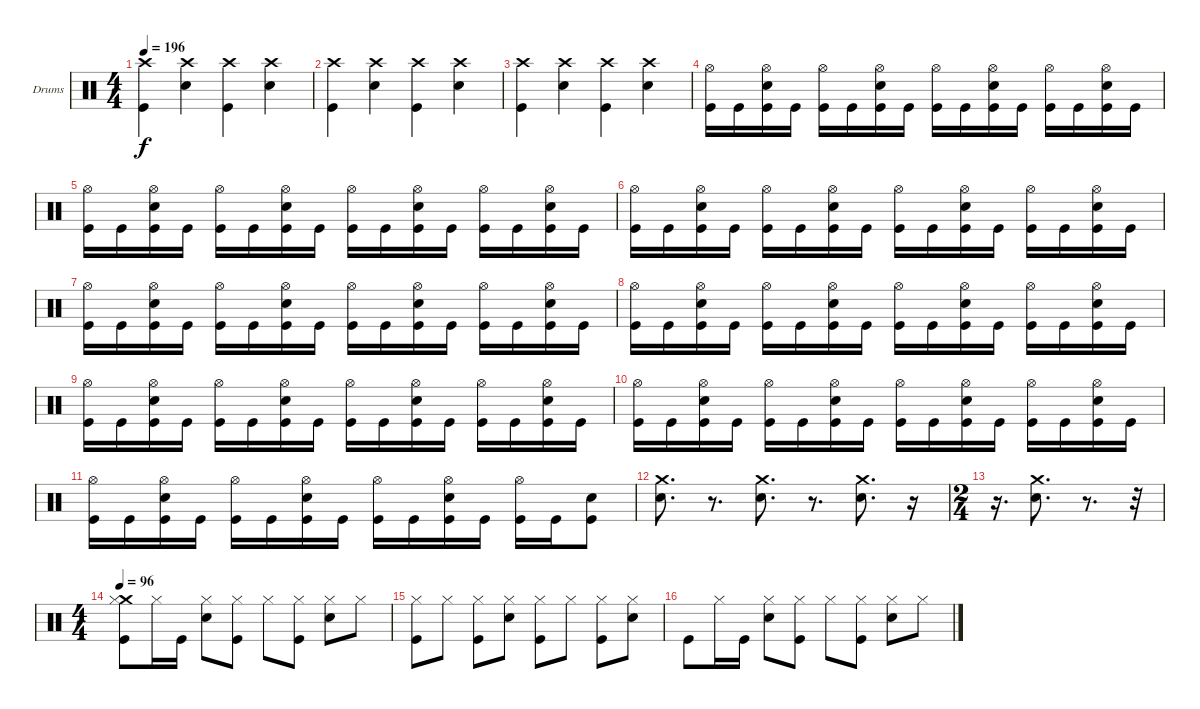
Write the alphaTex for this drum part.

\defaultSystemsLayout 4
\bracketExtendMode groupsimilarinstruments
\firstSystemTrackNameOrientation horizontal
\otherSystemsTrackNameOrientation horizontal
\track ("Lars Ulrich (Drum)" "Drums") {instrument percussion}
\staff {score}
\articulation defaults
\ts (4 4)
\tempo 196
\clef neutral
\scale
0.333333
\ks c
("Crash high (hit)" "Kick (hit)").4{dy f} ("Crash high (hit)" "Snare (hit) 2").4 ("Crash high (hit)" "Kick (hit)").4 ("Crash high (hit)" "Snare (hit) 2").4 |
\scale
0.333333 ("Crash high (hit)" "Kick (hit)").4 ("Crash high (hit)" "Snare (hit) 2").4 ("Crash high (hit)" "Kick (hit)").4 ("Crash high (hit)" "Snare (hit) 2").4 |
\scale
0.333333 ("Crash high (hit)" "Kick (hit)").4 ("Crash high (hit)" "Snare (hit) 2").4 ("Crash high (hit)" "Kick (hit)").4 ("Crash high (hit)" "Snare (hit) 2").4 |
\scale
0.333333 ("Hi-Hat (open)" "Kick (hit)").16 "Kick (hit)".16 ("Hi-Hat (open)" "Snare (hit) 2" "Kick (hit)").16 "Kick (hit)".16 ("Hi-Hat (open)" "Kick (hit)").16 "Kick (hit)".16 ("Hi-Hat (open)" "Snare (hit) 2" "Kick (hit)").16 "Kick (hit)".16 ("Hi-Hat (open)" "Kick (hit)").16 "Kick (hit)".16 ("Hi-Hat (open)" "Snare (hit) 2" "Kick (hit)").16 "Kick (hit)".16 ("Hi-Hat (open)" "Kick (hit)").16 "Kick (hit)".16 ("Hi-Hat (open)" "Snare (hit) 2" "Kick (hit)").16 "Kick (hit)".16 |
\scale
0.333333 ("Hi-Hat (open)" "Kick (hit)").16 "Kick (hit)".16 ("Hi-Hat (open)" "Snare (hit) 2" "Kick (hit)").16 "Kick (hit)".16 ("Hi-Hat (open)" "Kick (hit)").16 "Kick (hit)".16 ("Hi-Hat (open)" "Snare (hit) 2" "Kick (hit)").16 "Kick (hit)".16 ("Hi-Hat (open)" "Kick (hit)").16 "Kick (hit)".16 ("Hi-Hat (open)" "Snare (hit) 2" "Kick (hit)").16 "Kick (hit)".16 ("Hi-Hat (open)" "Kick (hit)").16 "Kick (hit)".16 ("Hi-Hat (open)" "Snare (hit) 2" "Kick (hit)").16 "Kick (hit)".16 |
\scale
0.333333 ("Hi-Hat (open)" "Kick (hit)").16 "Kick (hit)".16 ("Hi-Hat (open)" "Snare (hit) 2" "Kick (hit)").16 "Kick (hit)".16 ("Hi-Hat (open)" "Kick (hit)").16 "Kick (hit)".16 ("Hi-Hat (open)" "Snare (hit) 2" "Kick (hit)").16 "Kick (hit)".16 ("Hi-Hat (open)" "Kick (hit)").16 "Kick (hit)".16 ("Hi-Hat (open)" "Snare (hit) 2" "Kick (hit)").16 "Kick (hit)".16 ("Hi-Hat (open)" "Kick (hit)").16 "Kick (hit)".16 ("Hi-Hat (open)" "Snare (hit) 2" "Kick (hit)").16 "Kick (hit)".16 |
\scale
0.333333 ("Hi-Hat (open)" "Kick (hit)").16 "Kick (hit)".16 ("Hi-Hat (open)" "Snare (hit) 2" "Kick (hit)").16 "Kick (hit)".16 ("Hi-Hat (open)" "Kick (hit)").16 "Kick (hit)".16 ("Hi-Hat (open)" "Snare (hit) 2" "Kick (hit)").16 "Kick (hit)".16 ("Hi-Hat (open)" "Kick (hit)").16 "Kick (hit)".16 ("Hi-Hat (open)" "Snare (hit) 2" "Kick (hit)").16 "Kick (hit)".16 ("Hi-Hat (open)" "Kick (hit)").16 "Kick (hit)".16 ("Hi-Hat (open)" "Snare (hit) 2" "Kick (hit)").16 "Kick (hit)".16 |
\scale
0.333333 ("Hi-Hat (open)" "Kick (hit)").16 "Kick (hit)".16 ("Hi-Hat (open)" "Snare (hit) 2" "Kick (hit)").16 "Kick (hit)".16 ("Hi-Hat (open)" "Kick (hit)").16 "Kick (hit)".16 ("Hi-Hat (open)" "Snare (hit) 2" "Kick (hit)").16 "Kick (hit)".16 ("Hi-Hat (open)" "Kick (hit)").16 "Kick (hit)".16 ("Hi-Hat (open)" "Snare (hit) 2" "Kick (hit)").16 "Kick (hit)".16 ("Hi-Hat (open)" "Kick (hit)").16 "Kick (hit)".16 ("Hi-Hat (open)" "Snare (hit) 2" "Kick (hit)").16 "Kick (hit)".16 |
\scale
0.333333 ("Hi-Hat (open)" "Kick (hit)").16 "Kick (hit)".16 ("Hi-Hat (open)" "Snare (hit) 2" "Kick (hit)").16 "Kick (hit)".16 ("Hi-Hat (open)" "Kick (hit)").16 "Kick (hit)".16 ("Hi-Hat (open)" "Snare (hit) 2" "Kick (hit)").16 "Kick (hit)".16 ("Hi-Hat (open)" "Kick (hit)").16 "Kick (hit)".16 ("Hi-Hat (open)" "Snare (hit) 2" "Kick (hit)").16 "Kick (hit)".16 ("Hi-Hat (open)" "Kick (hit)").16 "Kick (hit)".16 ("Hi-Hat (open)" "Snare (hit) 2" "Kick (hit)").16 "Kick (hit)".16 |
\scale
0.333333 ("Hi-Hat (open)" "Kick (hit)").16 "Kick (hit)".16 ("Hi-Hat (open)" "Snare (hit) 2" "Kick (hit)").16 "Kick (hit)".16 ("Hi-Hat (open)" "Kick (hit)").16 "Kick (hit)".16 ("Hi-Hat (open)" "Snare (hit) 2" "Kick (hit)").16 "Kick (hit)".16 ("Hi-Hat (open)" "Kick (hit)").16 "Kick (hit)".16 ("Hi-Hat (open)" "Snare (hit) 2" "Kick (hit)").16 "Kick (hit)".16 ("Hi-Hat (open)" "Kick (hit)").16 "Kick (hit)".16 ("Hi-Hat (open)" "Snare (hit) 2" "Kick (hit)").16 "Kick (hit)".16 |
\scale
0.333333 ("Hi-Hat (open)" "Kick (hit)").16 "Kick (hit)".16 ("Hi-Hat (open)" "Snare (hit) 2" "Kick (hit)").16 "Kick (hit)".16 ("Hi-Hat (open)" "Kick (hit)").16 "Kick (hit)".16 ("Hi-Hat (open)" "Snare (hit) 2" "Kick (hit)").16 "Kick (hit)".16 ("Hi-Hat (open)" "Kick (hit)").16 "Kick (hit)".16 ("Hi-Hat (open)" "Snare (hit) 2" "Kick (hit)").16 "Kick (hit)".16 ("Hi-Hat (open)" "Kick (hit)").16 "Kick (hit)".16 ("Snare (hit) 2" "Kick (hit)").8 |
\scale
0.217054 ("Crash medium (hit)" "Snare (hit) 2").8{d} r.8{d} ("Crash medium (hit)" "Snare (hit) 2").8{d} r.8{d} ("Crash medium (hit)" "Snare (hit) 2").8{d} r.16 |
\ts (2 4)
\scale
0.391473 r.16{d} ("Crash medium (hit)" "Snare (hit) 2").8{d} r.8{d} r.32 |
\ts (4 4)
\tempo 96
\scale
0.391473 ("Crash medium (hit)" "Hi-Hat (closed)" "Kick (hit)").8 "Hi-Hat (closed)".16 "Kick (hit)".16 ("Hi-Hat (closed)" "Snare (hit) 2").8 ("Hi-Hat (closed)" "Kick (hit)").8 "Hi-Hat (closed)".8 ("Hi-Hat (closed)" "Kick (hit)").8 ("Hi-Hat (closed)" "Snare (hit) 2").8 "Hi-Hat (closed)".8 |
\scale
0.333333 ("Hi-Hat (closed)" "Kick (hit)").8 "Hi-Hat (closed)".8 ("Hi-Hat (closed)" "Kick (hit)").8 ("Hi-Hat (closed)" "Snare (hit) 2").8 ("Hi-Hat (closed)" "Kick (hit)").8 "Hi-Hat (closed)".8 ("Hi-Hat (closed)" "Kick (hit)").8 ("Hi-Hat (closed)" "Snare (hit) 2").8 |
\scale
0.333333 "Kick (hit)".8 "Hi-Hat (closed)".16 "Kick (hit)".16 ("Hi-Hat (closed)" "Snare (hit) 2").8 ("Hi-Hat (closed)" "Kick (hit)").8 "Hi-Hat (closed)".8 ("Hi-Hat (closed)" "Kick (hit)").8 ("Hi-Hat (closed)" "Snare (hit) 2").8 "Hi-Hat (closed)".8
